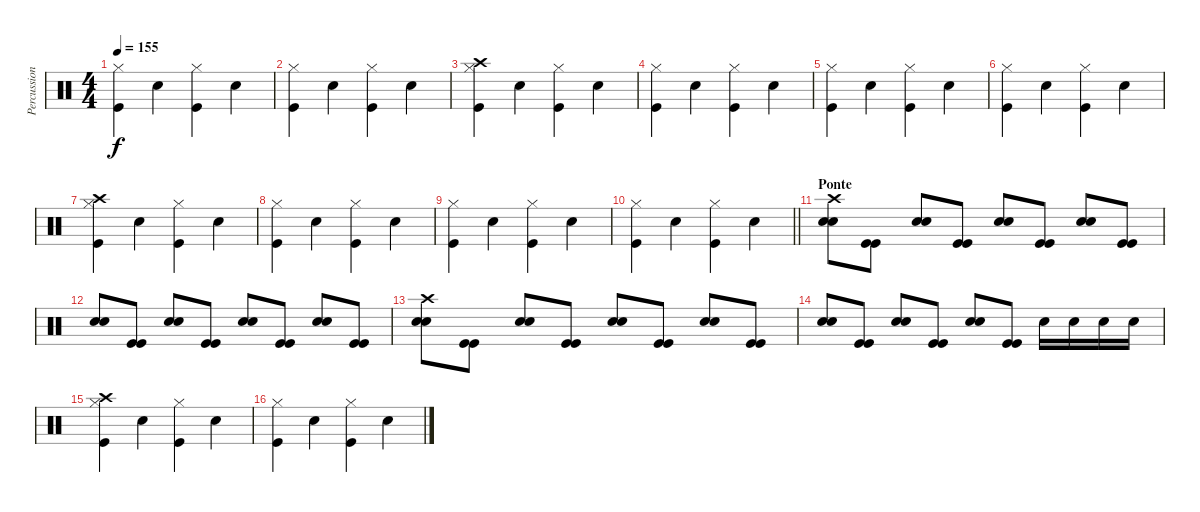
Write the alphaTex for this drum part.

\track ("Percussioni" "Percussion") {instrument percussion}
\staff {score}
\articulation defaults
\ts (4 4)
\tempo 155
\clef neutral
\ks c
("Hi-Hat (closed)" "Kick (hit)").4{dy f} "Snare (hit) 2".4 ("Hi-Hat (closed)" "Kick (hit)").4 "Snare (hit) 2".4 |
("Hi-Hat (closed)" "Kick (hit)").4 "Snare (hit) 2".4 ("Hi-Hat (closed)" "Kick (hit)").4 "Snare (hit) 2".4 |
("Hi-Hat (closed)" "Kick (hit)" "Crash high (hit)").4 "Snare (hit) 2".4 ("Hi-Hat (closed)" "Kick (hit)").4 "Snare (hit) 2".4 |
("Hi-Hat (closed)" "Kick (hit)").4 "Snare (hit) 2".4 ("Hi-Hat (closed)" "Kick (hit)").4 "Snare (hit) 2".4 |
("Hi-Hat (closed)" "Kick (hit)").4 "Snare (hit) 2".4 ("Hi-Hat (closed)" "Kick (hit)").4 "Snare (hit) 2".4 |
("Hi-Hat (closed)" "Kick (hit)").4 "Snare (hit) 2".4 ("Hi-Hat (closed)" "Kick (hit)").4 "Snare (hit) 2".4 |
("Hi-Hat (closed)" "Kick (hit)" "Crash high (hit)").4 "Snare (hit) 2".4 ("Hi-Hat (closed)" "Kick (hit)").4 "Snare (hit) 2".4 |
("Hi-Hat (closed)" "Kick (hit)").4 "Snare (hit) 2".4 ("Hi-Hat (closed)" "Kick (hit)").4 "Snare (hit) 2".4 |
("Hi-Hat (closed)" "Kick (hit)").4 "Snare (hit) 2".4 ("Hi-Hat (closed)" "Kick (hit)").4 "Snare (hit) 2".4 |
\barLineRight lightlight
("Hi-Hat (closed)" "Kick (hit)").4 "Snare (hit) 2".4 ("Hi-Hat (closed)" "Kick (hit)").4 "Snare (hit) 2".4 |
\section ("" "Ponte")
("Snare (hit) 2" "Snare (hit) 2" "Crash high (hit)").8 ("Kick (hit)" "Kick (hit)").8 ("Snare (hit) 2" "Snare (hit) 2").8 ("Kick (hit)" "Kick (hit)").8 ("Snare (hit) 2" "Snare (hit) 2").8 ("Kick (hit)" "Kick (hit)").8 ("Snare (hit) 2" "Snare (hit) 2").8 ("Kick (hit)" "Kick (hit)").8 |
("Snare (hit) 2" "Snare (hit) 2").8 ("Kick (hit)" "Kick (hit)").8 ("Snare (hit) 2" "Snare (hit) 2").8 ("Kick (hit)" "Kick (hit)").8 ("Snare (hit) 2" "Snare (hit) 2").8 ("Kick (hit)" "Kick (hit)").8 ("Snare (hit) 2" "Snare (hit) 2").8 ("Kick (hit)" "Kick (hit)").8 |
("Snare (hit) 2" "Snare (hit) 2" "Crash high (hit)").8 ("Kick (hit)" "Kick (hit)").8 ("Snare (hit) 2" "Snare (hit) 2").8 ("Kick (hit)" "Kick (hit)").8 ("Snare (hit) 2" "Snare (hit) 2").8 ("Kick (hit)" "Kick (hit)").8 ("Snare (hit) 2" "Snare (hit) 2").8 ("Kick (hit)" "Kick (hit)").8 |
("Snare (hit) 2" "Snare (hit) 2").8 ("Kick (hit)" "Kick (hit)").8 ("Snare (hit) 2" "Snare (hit) 2").8 ("Kick (hit)" "Kick (hit)").8 ("Snare (hit) 2" "Snare (hit) 2").8 ("Kick (hit)" "Kick (hit)").8 "Snare (hit) 2".16 "Snare (hit) 2".16 "Snare (hit) 2".16 "Snare (hit) 2".16 |
("Hi-Hat (closed)" "Kick (hit)" "Crash high (hit)").4 "Snare (hit) 2".4 ("Hi-Hat (closed)" "Kick (hit)").4 "Snare (hit) 2".4 |
("Hi-Hat (closed)" "Kick (hit)").4 "Snare (hit) 2".4 ("Hi-Hat (closed)" "Kick (hit)").4 "Snare (hit) 2".4
